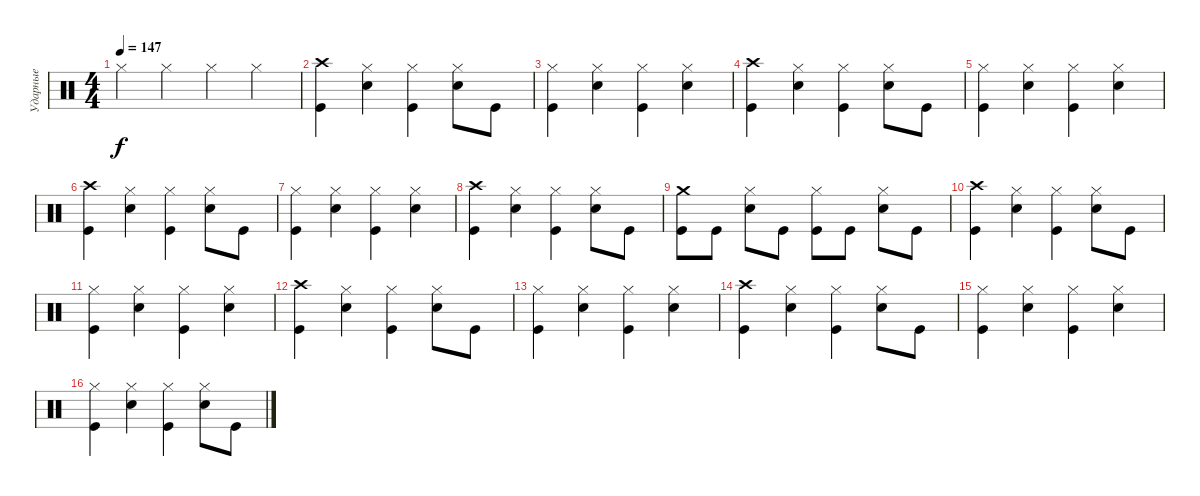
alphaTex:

\track ("Ударные" "Ударные") {instrument percussion}
\staff {score}
\articulation defaults
\ts (4 4)
\tempo 147
\clef neutral
\ks c "Hi-Hat (closed)".4{dy f} "Hi-Hat (closed)".4 "Hi-Hat (closed)".4 "Hi-Hat (closed)".4
|
("Crash high (hit)" "Kick (hit)").4 ("Hi-Hat (closed)" "Electric Snare (hit)").4 ("Hi-Hat (closed)" "Kick (hit)").4 ("Hi-Hat (closed)" "Electric Snare (hit)").8 "Kick (hit)".8 |
("Hi-Hat (closed)" "Kick (hit)").4 ("Hi-Hat (closed)" "Electric Snare (hit)").4 ("Hi-Hat (closed)" "Kick (hit)").4 ("Hi-Hat (closed)" "Electric Snare (hit)").4 |
("Crash high (hit)" "Kick (hit)").4 ("Hi-Hat (closed)" "Electric Snare (hit)").4 ("Hi-Hat (closed)" "Kick (hit)").4 ("Hi-Hat (closed)" "Electric Snare (hit)").8 "Kick (hit)".8 |
("Hi-Hat (closed)" "Kick (hit)").4 ("Hi-Hat (closed)" "Electric Snare (hit)").4 ("Hi-Hat (closed)" "Kick (hit)").4 ("Hi-Hat (closed)" "Electric Snare (hit)").4 |
("Crash high (hit)" "Kick (hit)").4 ("Hi-Hat (closed)" "Electric Snare (hit)").4 ("Hi-Hat (closed)" "Kick (hit)").4 ("Hi-Hat (closed)" "Electric Snare (hit)").8 "Kick (hit)".8 |
("Hi-Hat (closed)" "Kick (hit)").4 ("Hi-Hat (closed)" "Electric Snare (hit)").4 ("Hi-Hat (closed)" "Kick (hit)").4 ("Hi-Hat (closed)" "Electric Snare (hit)").4 |
("Crash high (hit)" "Kick (hit)").4 ("Hi-Hat (closed)" "Electric Snare (hit)").4 ("Hi-Hat (closed)" "Kick (hit)").4 ("Hi-Hat (closed)" "Electric Snare (hit)").8 "Kick (hit)".8 |
("Crash medium (hit)" "Kick (hit)").8 "Kick (hit)".8 ("Hi-Hat (closed)" "Electric Snare (hit)").8 "Kick (hit)".8 ("Hi-Hat (closed)" "Kick (hit)").8 "Kick (hit)".8 ("Hi-Hat (closed)" "Electric Snare (hit)").8 "Kick (hit)".8 |
("Crash high (hit)" "Kick (hit)").4 ("Hi-Hat (closed)" "Electric Snare (hit)").4 ("Hi-Hat (closed)" "Kick (hit)").4 ("Hi-Hat (closed)" "Electric Snare (hit)").8 "Kick (hit)".8 |
("Hi-Hat (closed)" "Kick (hit)").4 ("Hi-Hat (closed)" "Electric Snare (hit)").4 ("Hi-Hat (closed)" "Kick (hit)").4 ("Hi-Hat (closed)" "Electric Snare (hit)").4 |
("Crash high (hit)" "Kick (hit)").4 ("Hi-Hat (closed)" "Electric Snare (hit)").4 ("Hi-Hat (closed)" "Kick (hit)").4 ("Hi-Hat (closed)" "Electric Snare (hit)").8 "Kick (hit)".8 |
("Hi-Hat (closed)" "Kick (hit)").4 ("Hi-Hat (closed)" "Electric Snare (hit)").4 ("Hi-Hat (closed)" "Kick (hit)").4 ("Hi-Hat (closed)" "Electric Snare (hit)").4 |
("Crash high (hit)" "Kick (hit)").4 ("Hi-Hat (closed)" "Electric Snare (hit)").4 ("Hi-Hat (closed)" "Kick (hit)").4 ("Hi-Hat (closed)" "Electric Snare (hit)").8 "Kick (hit)".8 |
("Hi-Hat (closed)" "Kick (hit)").4 ("Hi-Hat (closed)" "Electric Snare (hit)").4 ("Hi-Hat (closed)" "Kick (hit)").4 ("Hi-Hat (closed)" "Electric Snare (hit)").4 |
("Hi-Hat (closed)" "Kick (hit)").4 ("Hi-Hat (closed)" "Electric Snare (hit)").4 ("Hi-Hat (closed)" "Kick (hit)").4 ("Hi-Hat (closed)" "Electric Snare (hit)").8 "Kick (hit)".8
